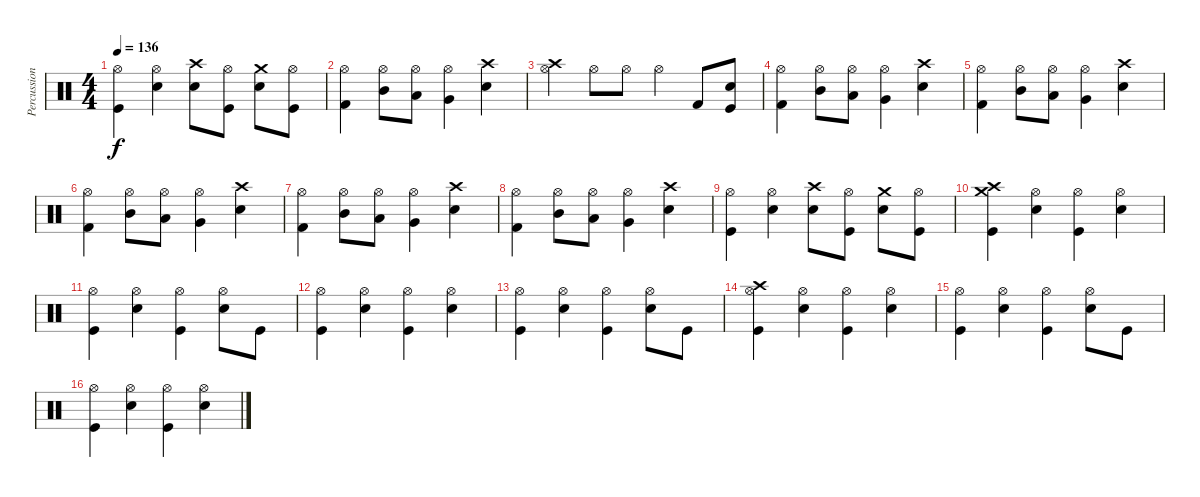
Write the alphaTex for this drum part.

\track ("Percussion" "Percussion") {instrument percussion}
\staff {score}
\articulation defaults
\ts (4 4)
\tempo 136
\clef neutral
\ks c
("Hi-Hat (open)" "Kick (hit)").4{dy f} ("Hi-Hat (open)" "Electric Snare (hit)").4 ("Crash high (hit)" "Electric Snare (hit)").8 ("Hi-Hat (open)" "Kick (hit)").8 ("Crash medium (hit)" "Electric Snare (hit)").8 ("Hi-Hat (open)" "Kick (hit)").8 |
("Hi-Hat (open)" "Kick (hit) 2").4 ("Hi-Hat (open)" "Mid Tom (hit)").8 ("Hi-Hat (open)" "Low Tom (hit)").8 ("Hi-Hat (open)" "Very Low Tom (hit)").4 ("Crash high (hit)" "Electric Snare (hit)").4 |
("Crash high (hit)" "Hi-Hat (open)").4 "Hi-Hat (open)".8 "Hi-Hat (open)".8 "Hi-Hat (open)".4 "Kick (hit) 2".8 ("Snare (hit) 2" "Kick (hit)").8 |
("Hi-Hat (open)" "Kick (hit) 2").4 ("Hi-Hat (open)" "Mid Tom (hit)").8 ("Hi-Hat (open)" "Low Tom (hit)").8 ("Hi-Hat (open)" "Very Low Tom (hit)").4 ("Crash high (hit)" "Electric Snare (hit)").4 |
("Hi-Hat (open)" "Kick (hit) 2").4 ("Hi-Hat (open)" "Mid Tom (hit)").8 ("Hi-Hat (open)" "Low Tom (hit)").8 ("Hi-Hat (open)" "Very Low Tom (hit)").4 ("Crash high (hit)" "Electric Snare (hit)").4 |
("Hi-Hat (open)" "Kick (hit) 2").4 ("Hi-Hat (open)" "Mid Tom (hit)").8 ("Hi-Hat (open)" "Low Tom (hit)").8 ("Hi-Hat (open)" "Very Low Tom (hit)").4 ("Crash high (hit)" "Electric Snare (hit)").4 |
("Hi-Hat (open)" "Kick (hit) 2").4 ("Hi-Hat (open)" "Mid Tom (hit)").8 ("Hi-Hat (open)" "Low Tom (hit)").8 ("Hi-Hat (open)" "Very Low Tom (hit)").4 ("Crash high (hit)" "Electric Snare (hit)").4 |
("Hi-Hat (open)" "Kick (hit) 2").4 ("Hi-Hat (open)" "Mid Tom (hit)").8 ("Hi-Hat (open)" "Low Tom (hit)").8 ("Hi-Hat (open)" "Very Low Tom (hit)").4 ("Crash high (hit)" "Electric Snare (hit)").4 |
("Hi-Hat (open)" "Kick (hit)").4 ("Hi-Hat (open)" "Electric Snare (hit)").4 ("Crash high (hit)" "Electric Snare (hit)").8 ("Hi-Hat (open)" "Kick (hit)").8 ("Crash medium (hit)" "Electric Snare (hit)").8 ("Hi-Hat (open)" "Kick (hit)").8 |
("Crash high (hit)" "Crash medium (hit)" "Kick (hit)").4 ("Hi-Hat (open)" "Electric Snare (hit)").4 ("Hi-Hat (open)" "Kick (hit)").4 ("Hi-Hat (open)" "Electric Snare (hit)").4 |
("Hi-Hat (open)" "Kick (hit)").4 ("Hi-Hat (open)" "Electric Snare (hit)").4 ("Hi-Hat (open)" "Kick (hit)").4 ("Hi-Hat (open)" "Electric Snare (hit)").8 "Kick (hit)".8 |
("Hi-Hat (open)" "Kick (hit)").4 ("Hi-Hat (open)" "Electric Snare (hit)").4 ("Hi-Hat (open)" "Kick (hit)").4 ("Hi-Hat (open)" "Electric Snare (hit)").4 |
("Hi-Hat (open)" "Kick (hit)").4 ("Hi-Hat (open)" "Electric Snare (hit)").4 ("Hi-Hat (open)" "Kick (hit)").4 ("Hi-Hat (open)" "Electric Snare (hit)").8 "Kick (hit)".8 |
("Crash high (hit)" "Hi-Hat (open)" "Kick (hit)").4 ("Hi-Hat (open)" "Electric Snare (hit)").4 ("Hi-Hat (open)" "Kick (hit)").4 ("Hi-Hat (open)" "Electric Snare (hit)").4 |
("Hi-Hat (open)" "Kick (hit)").4 ("Hi-Hat (open)" "Electric Snare (hit)").4 ("Hi-Hat (open)" "Kick (hit)").4 ("Hi-Hat (open)" "Electric Snare (hit)").8 "Kick (hit)".8 |
("Hi-Hat (open)" "Kick (hit)").4 ("Hi-Hat (open)" "Electric Snare (hit)").4 ("Hi-Hat (open)" "Kick (hit)").4 ("Hi-Hat (open)" "Electric Snare (hit)").4
